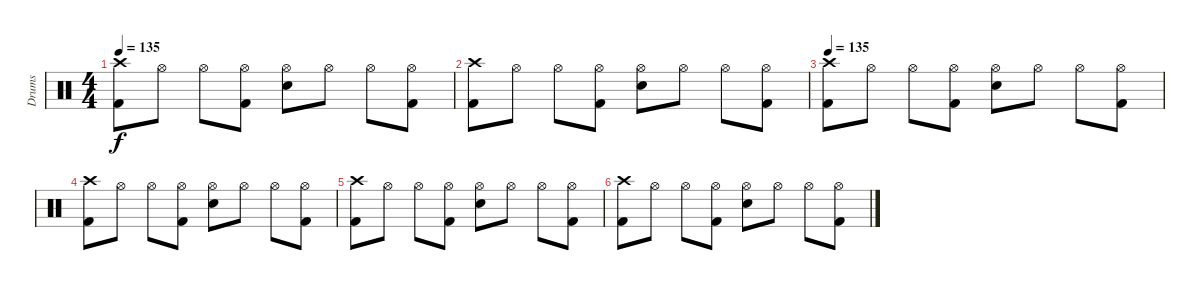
\track ("Drums" "Drums") {instrument percussion}
\staff {score}
\articulation defaults
\ts (4 4)
\tempo 135
\clef neutral
\ks c
("Kick (hit) 2" "Crash high (hit)").8{dy f} "Hi-Hat (open)".8 "Hi-Hat (open)".8 ("Kick (hit) 2" "Hi-Hat (open)").8 ("Electric Snare (hit)" "Hi-Hat (open)").8 "Hi-Hat (open)".8 "Hi-Hat (open)".8 ("Kick (hit) 2" "Hi-Hat (open)").8 |
("Kick (hit) 2" "Crash high (hit)").8 "Hi-Hat (open)".8 "Hi-Hat (open)".8 ("Kick (hit) 2" "Hi-Hat (open)").8 ("Electric Snare (hit)" "Hi-Hat (open)").8 "Hi-Hat (open)".8 "Hi-Hat (open)".8 ("Kick (hit) 2" "Hi-Hat (open)").8 |
\tempo 135
("Kick (hit) 2" "Crash high (hit)").8 "Hi-Hat (open)".8 "Hi-Hat (open)".8 ("Kick (hit) 2" "Hi-Hat (open)").8 ("Electric Snare (hit)" "Hi-Hat (open)").8 "Hi-Hat (open)".8 "Hi-Hat (open)".8 ("Kick (hit) 2" "Hi-Hat (open)").8 |
("Kick (hit) 2" "Crash high (hit)").8 "Hi-Hat (open)".8 "Hi-Hat (open)".8 ("Kick (hit) 2" "Hi-Hat (open)").8 ("Electric Snare (hit)" "Hi-Hat (open)").8 "Hi-Hat (open)".8 "Hi-Hat (open)".8 ("Kick (hit) 2" "Hi-Hat (open)").8 |
("Kick (hit) 2" "Crash high (hit)").8 "Hi-Hat (open)".8 "Hi-Hat (open)".8 ("Kick (hit) 2" "Hi-Hat (open)").8 ("Electric Snare (hit)" "Hi-Hat (open)").8 "Hi-Hat (open)".8 "Hi-Hat (open)".8 ("Kick (hit) 2" "Hi-Hat (open)").8 |
("Kick (hit) 2" "Crash high (hit)").8 "Hi-Hat (open)".8 "Hi-Hat (open)".8 ("Kick (hit) 2" "Hi-Hat (open)").8 ("Electric Snare (hit)" "Hi-Hat (open)").8 "Hi-Hat (open)".8 "Hi-Hat (open)".8 ("Kick (hit) 2" "Hi-Hat (open)").8
